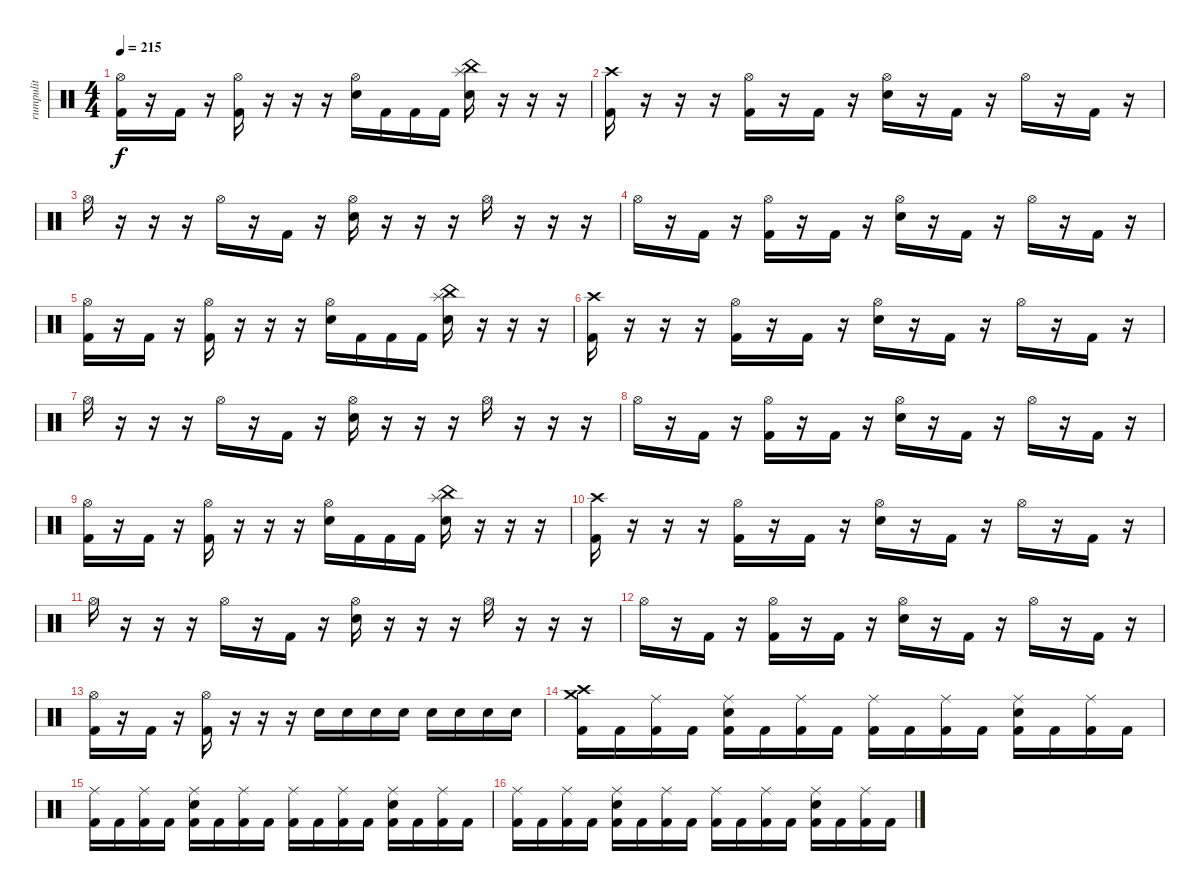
\track ("rumpulit" "rumpulit") {instrument percussion}
\staff {score}
\articulation defaults
\ts (4 4)
\tempo 215
\clef neutral
\ks c
("Hi-Hat (open)" "Kick (hit) 2").16{dy f} r.16 "Kick (hit) 2".16 r.16 ("Hi-Hat (open)" "Kick (hit) 2").16 r.16 r.16 r.16 ("Hi-Hat (open)" "Electric Snare (hit)").16 "Kick (hit) 2".16 "Kick (hit) 2".16 "Kick (hit) 2".16 ("China (hit)" "Electric Snare (hit)" "Splash (hit)").16 r.16 r.16 r.16 |
("Crash high (hit)" "Kick (hit) 2").16 r.16 r.16 r.16 ("Hi-Hat (open)" "Kick (hit) 2").16 r.16 "Kick (hit) 2".16 r.16 ("Hi-Hat (open)" "Electric Snare (hit)").16 r.16 "Kick (hit) 2".16 r.16 "Hi-Hat (open)".16 r.16 "Kick (hit) 2".16 r.16 |
"Hi-Hat (open)".16 r.16 r.16 r.16 "Hi-Hat (open)".16 r.16 "Kick (hit) 2".16 r.16 ("Hi-Hat (open)" "Electric Snare (hit)").16 r.16 r.16 r.16 "Hi-Hat (open)".16 r.16 r.16 r.16 |
"Hi-Hat (open)".16 r.16 "Kick (hit) 2".16 r.16 ("Hi-Hat (open)" "Kick (hit) 2").16 r.16 "Kick (hit) 2".16 r.16 ("Hi-Hat (open)" "Electric Snare (hit)").16 r.16 "Kick (hit) 2".16 r.16 "Hi-Hat (open)".16 r.16 "Kick (hit) 2".16 r.16 |
("Hi-Hat (open)" "Kick (hit) 2").16 r.16 "Kick (hit) 2".16 r.16 ("Hi-Hat (open)" "Kick (hit) 2").16 r.16 r.16 r.16 ("Hi-Hat (open)" "Electric Snare (hit)").16 "Kick (hit) 2".16 "Kick (hit) 2".16 "Kick (hit) 2".16 ("China (hit)" "Electric Snare (hit)" "Splash (hit)").16 r.16 r.16 r.16 |
("Crash high (hit)" "Kick (hit) 2").16 r.16 r.16 r.16 ("Hi-Hat (open)" "Kick (hit) 2").16 r.16 "Kick (hit) 2".16 r.16 ("Hi-Hat (open)" "Electric Snare (hit)").16 r.16 "Kick (hit) 2".16 r.16 "Hi-Hat (open)".16 r.16 "Kick (hit) 2".16 r.16 |
"Hi-Hat (open)".16 r.16 r.16 r.16 "Hi-Hat (open)".16 r.16 "Kick (hit) 2".16 r.16 ("Hi-Hat (open)" "Electric Snare (hit)").16 r.16 r.16 r.16 "Hi-Hat (open)".16 r.16 r.16 r.16 |
"Hi-Hat (open)".16 r.16 "Kick (hit) 2".16 r.16 ("Hi-Hat (open)" "Kick (hit) 2").16 r.16 "Kick (hit) 2".16 r.16 ("Hi-Hat (open)" "Electric Snare (hit)").16 r.16 "Kick (hit) 2".16 r.16 "Hi-Hat (open)".16 r.16 "Kick (hit) 2".16 r.16 |
("Hi-Hat (open)" "Kick (hit) 2").16 r.16 "Kick (hit) 2".16 r.16 ("Hi-Hat (open)" "Kick (hit) 2").16 r.16 r.16 r.16 ("Hi-Hat (open)" "Electric Snare (hit)").16 "Kick (hit) 2".16 "Kick (hit) 2".16 "Kick (hit) 2".16 ("China (hit)" "Electric Snare (hit)" "Splash (hit)").16 r.16 r.16 r.16 |
("Crash high (hit)" "Kick (hit) 2").16 r.16 r.16 r.16 ("Hi-Hat (open)" "Kick (hit) 2").16 r.16 "Kick (hit) 2".16 r.16 ("Hi-Hat (open)" "Electric Snare (hit)").16 r.16 "Kick (hit) 2".16 r.16 "Hi-Hat (open)".16 r.16 "Kick (hit) 2".16 r.16 |
"Hi-Hat (open)".16 r.16 r.16 r.16 "Hi-Hat (open)".16 r.16 "Kick (hit) 2".16 r.16 ("Hi-Hat (open)" "Electric Snare (hit)").16 r.16 r.16 r.16 "Hi-Hat (open)".16 r.16 r.16 r.16 |
"Hi-Hat (open)".16 r.16 "Kick (hit) 2".16 r.16 ("Hi-Hat (open)" "Kick (hit) 2").16 r.16 "Kick (hit) 2".16 r.16 ("Hi-Hat (open)" "Electric Snare (hit)").16 r.16 "Kick (hit) 2".16 r.16 "Hi-Hat (open)".16 r.16 "Kick (hit) 2".16 r.16 |
("Hi-Hat (open)" "Kick (hit) 2").16 r.16 "Kick (hit) 2".16 r.16 ("Hi-Hat (open)" "Kick (hit) 2").16 r.16 r.16 r.16 "Electric Snare (hit)".16 "Electric Snare (hit)".16 "Electric Snare (hit)".16 "Electric Snare (hit)".16 "Electric Snare (hit)".16 "Electric Snare (hit)".16 "Electric Snare (hit)".16 "Electric Snare (hit)".16 |
("Crash high (hit)" "Kick (hit) 2" "Crash medium (hit)").16 "Kick (hit) 2".16 ("Ride (middle)" "Kick (hit) 2").16 "Kick (hit) 2".16 ("Ride (middle)" "Kick (hit) 2" "Electric Snare (hit)").16 "Kick (hit) 2".16 ("Ride (middle)" "Kick (hit) 2").16 "Kick (hit) 2".16 ("Ride (middle)" "Kick (hit) 2").16 "Kick (hit) 2".16 ("Ride (middle)" "Kick (hit) 2").16 "Kick (hit) 2".16 ("Ride (middle)" "Kick (hit) 2" "Electric Snare (hit)").16 "Kick (hit) 2".16 ("Ride (middle)" "Kick (hit) 2").16 "Kick (hit) 2".16 |
("Ride (middle)" "Kick (hit) 2").16 "Kick (hit) 2".16 ("Ride (middle)" "Kick (hit) 2").16 "Kick (hit) 2".16 ("Ride (middle)" "Kick (hit) 2" "Electric Snare (hit)").16 "Kick (hit) 2".16 ("Ride (middle)" "Kick (hit) 2").16 "Kick (hit) 2".16 ("Ride (middle)" "Kick (hit) 2").16 "Kick (hit) 2".16 ("Ride (middle)" "Kick (hit) 2").16 "Kick (hit) 2".16 ("Ride (middle)" "Kick (hit) 2" "Electric Snare (hit)").16 "Kick (hit) 2".16 ("Ride (middle)" "Kick (hit) 2").16 "Kick (hit) 2".16 |
("Ride (middle)" "Kick (hit) 2").16 "Kick (hit) 2".16 ("Ride (middle)" "Kick (hit) 2").16 "Kick (hit) 2".16 ("Ride (middle)" "Kick (hit) 2" "Electric Snare (hit)").16 "Kick (hit) 2".16 ("Ride (middle)" "Kick (hit) 2").16 "Kick (hit) 2".16 ("Ride (middle)" "Kick (hit) 2").16 "Kick (hit) 2".16 ("Ride (middle)" "Kick (hit) 2").16 "Kick (hit) 2".16 ("Ride (middle)" "Kick (hit) 2" "Electric Snare (hit)").16 "Kick (hit) 2".16 ("Ride (middle)" "Kick (hit) 2").16 "Kick (hit) 2".16
